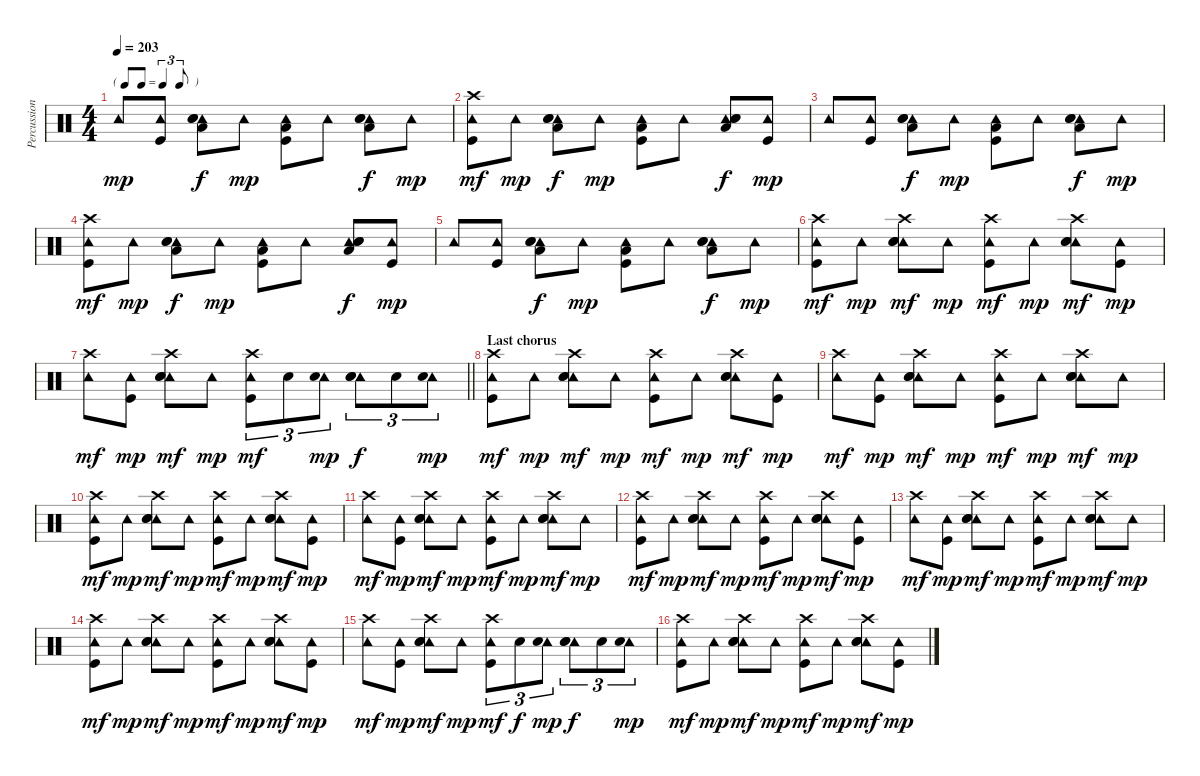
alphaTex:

\track ("Percussion" "Percussion") {instrument percussion}
\staff {score}
\articulation defaults
\ts (4 4)
\tf triplet8th
\tempo 203
\clef neutral
\ks c "Tambourine (hit)".8{dy mp}
("Tambourine (hit)" "Kick (hit)").8 ("Tambourine (hit)" "Hand Clap (hit)" "Snare (hit) 2" "Low Tom (hit)").8{dy f} "Tambourine (hit)".8{dy mp} ("Tambourine (hit)" "Low Tom (hit)" "Kick (hit)").8 "Tambourine (hit)".8 ("Tambourine (hit)" "Hand Clap (hit)" "Snare (hit) 2" "Low Tom (hit)").8{dy f} "Tambourine (hit)".8{dy mp} |
("Tambourine (hit)" "Crash high (hit)" "Kick (hit)").8{dy mf} "Tambourine (hit)".8{dy mp} ("Tambourine (hit)" "Hand Clap (hit)" "Snare (hit) 2" "Low Tom (hit)").8{dy f} "Tambourine (hit)".8{dy mp} ("Tambourine (hit)" "Low Tom (hit)" "Kick (hit)").8 "Tambourine (hit)".8 ("Tambourine (hit)" "Hand Clap (hit)" "Snare (hit) 2" "Low Tom (hit)").8{dy f} ("Tambourine (hit)" "Kick (hit)").8{dy mp} |
"Tambourine (hit)".8 ("Tambourine (hit)" "Kick (hit)").8 ("Tambourine (hit)" "Hand Clap (hit)" "Snare (hit) 2" "Low Tom (hit)").8{dy f} "Tambourine (hit)".8{dy mp} ("Tambourine (hit)" "Low Tom (hit)" "Kick (hit)").8 "Tambourine (hit)".8 ("Tambourine (hit)" "Hand Clap (hit)" "Snare (hit) 2" "Low Tom (hit)").8{dy f} "Tambourine (hit)".8{dy mp} |
("Tambourine (hit)" "Crash high (hit)" "Kick (hit)").8{dy mf} "Tambourine (hit)".8{dy mp} ("Tambourine (hit)" "Hand Clap (hit)" "Snare (hit) 2" "Low Tom (hit)").8{dy f} "Tambourine (hit)".8{dy mp} ("Tambourine (hit)" "Low Tom (hit)" "Kick (hit)").8 "Tambourine (hit)".8 ("Tambourine (hit)" "Hand Clap (hit)" "Snare (hit) 2" "Low Tom (hit)").8{dy f} ("Tambourine (hit)" "Kick (hit)").8{dy mp} |
"Tambourine (hit)".8 ("Tambourine (hit)" "Kick (hit)").8 ("Tambourine (hit)" "Hand Clap (hit)" "Snare (hit) 2" "Low Tom (hit)").8{dy f} "Tambourine (hit)".8{dy mp} ("Tambourine (hit)" "Low Tom (hit)" "Kick (hit)").8 "Tambourine (hit)".8 ("Tambourine (hit)" "Hand Clap (hit)" "Snare (hit) 2" "Low Tom (hit)").8{dy f} "Tambourine (hit)".8{dy mp} |
("Tambourine (hit)" "Crash high (hit)" "Kick (hit)").8{dy mf} "Tambourine (hit)".8{dy mp} ("Tambourine (hit)" "Crash high (hit)" "Hand Clap (hit)" "Snare (hit) 2").8{dy mf} "Tambourine (hit)".8{dy mp} ("Tambourine (hit)" "Crash high (hit)" "Kick (hit)").8{dy mf} "Tambourine (hit)".8{dy mp} ("Tambourine (hit)" "Crash high (hit)" "Hand Clap (hit)" "Snare (hit) 2").8{dy mf} ("Tambourine (hit)" "Kick (hit)").8{dy mp} |
\barLineRight lightlight
("Tambourine (hit)" "Crash high (hit)").8{dy mf} ("Tambourine (hit)" "Kick (hit)").8{dy mp} ("Tambourine (hit)" "Crash high (hit)" "Hand Clap (hit)" "Snare (hit) 2").8{dy mf} "Tambourine (hit)".8{dy mp} ("Tambourine (hit)" "Crash high (hit)" "Kick (hit)").8{tu (3 2) dy mf} "Snare (hit) 2".8{tu (3 2)} ("Tambourine (hit)" "Snare (hit) 2").8{tu (3 2) dy mp} ("Tambourine (hit)" "Hand Clap (hit)" "Snare (hit) 2").8{tu (3 2) dy f} "Snare (hit) 2".8{tu (3 2)} ("Tambourine (hit)" "Snare (hit) 2").8{tu (3 2) dy mp} |
\section ("" "Last chorus")
("Tambourine (hit)" "Crash high (hit)" "Kick (hit)").8{dy mf} "Tambourine (hit)".8{dy mp} ("Tambourine (hit)" "Crash high (hit)" "Hand Clap (hit)" "Snare (hit) 2").8{dy mf} "Tambourine (hit)".8{dy mp} ("Tambourine (hit)" "Crash high (hit)" "Kick (hit)").8{dy mf} "Tambourine (hit)".8{dy mp} ("Tambourine (hit)" "Crash high (hit)" "Hand Clap (hit)" "Snare (hit) 2").8{dy mf} ("Tambourine (hit)" "Kick (hit)").8{dy mp} |
("Tambourine (hit)" "Crash high (hit)").8{dy mf} ("Tambourine (hit)" "Kick (hit)").8{dy mp} ("Tambourine (hit)" "Crash high (hit)" "Hand Clap (hit)" "Snare (hit) 2").8{dy mf} "Tambourine (hit)".8{dy mp} ("Tambourine (hit)" "Crash high (hit)" "Kick (hit)").8{dy mf} "Tambourine (hit)".8{dy mp} ("Tambourine (hit)" "Crash high (hit)" "Hand Clap (hit)" "Snare (hit) 2").8{dy mf} "Tambourine (hit)".8{dy mp} |
("Tambourine (hit)" "Crash high (hit)" "Kick (hit)").8{dy mf} "Tambourine (hit)".8{dy mp} ("Tambourine (hit)" "Crash high (hit)" "Hand Clap (hit)" "Snare (hit) 2").8{dy mf} "Tambourine (hit)".8{dy mp} ("Tambourine (hit)" "Crash high (hit)" "Kick (hit)").8{dy mf} "Tambourine (hit)".8{dy mp} ("Tambourine (hit)" "Crash high (hit)" "Hand Clap (hit)" "Snare (hit) 2").8{dy mf} ("Tambourine (hit)" "Kick (hit)").8{dy mp} |
("Tambourine (hit)" "Crash high (hit)").8{dy mf} ("Tambourine (hit)" "Kick (hit)").8{dy mp} ("Tambourine (hit)" "Crash high (hit)" "Hand Clap (hit)" "Snare (hit) 2").8{dy mf} "Tambourine (hit)".8{dy mp} ("Tambourine (hit)" "Crash high (hit)" "Kick (hit)").8{dy mf} "Tambourine (hit)".8{dy mp} ("Tambourine (hit)" "Crash high (hit)" "Hand Clap (hit)" "Snare (hit) 2").8{dy mf} "Tambourine (hit)".8{dy mp} |
("Tambourine (hit)" "Crash high (hit)" "Kick (hit)").8{dy mf} "Tambourine (hit)".8{dy mp} ("Tambourine (hit)" "Crash high (hit)" "Hand Clap (hit)" "Snare (hit) 2").8{dy mf} "Tambourine (hit)".8{dy mp} ("Tambourine (hit)" "Crash high (hit)" "Kick (hit)").8{dy mf} "Tambourine (hit)".8{dy mp} ("Tambourine (hit)" "Crash high (hit)" "Hand Clap (hit)" "Snare (hit) 2").8{dy mf} ("Tambourine (hit)" "Kick (hit)").8{dy mp} |
("Tambourine (hit)" "Crash high (hit)").8{dy mf} ("Tambourine (hit)" "Kick (hit)").8{dy mp} ("Tambourine (hit)" "Crash high (hit)" "Hand Clap (hit)" "Snare (hit) 2").8{dy mf} "Tambourine (hit)".8{dy mp} ("Tambourine (hit)" "Crash high (hit)" "Kick (hit)").8{dy mf} "Tambourine (hit)".8{dy mp} ("Tambourine (hit)" "Crash high (hit)" "Hand Clap (hit)" "Snare (hit) 2").8{dy mf} "Tambourine (hit)".8{dy mp} |
("Tambourine (hit)" "Crash high (hit)" "Kick (hit)").8{dy mf} "Tambourine (hit)".8{dy mp} ("Tambourine (hit)" "Crash high (hit)" "Hand Clap (hit)" "Snare (hit) 2").8{dy mf} "Tambourine (hit)".8{dy mp} ("Tambourine (hit)" "Crash high (hit)" "Kick (hit)").8{dy mf} "Tambourine (hit)".8{dy mp} ("Tambourine (hit)" "Crash high (hit)" "Hand Clap (hit)" "Snare (hit) 2").8{dy mf} ("Tambourine (hit)" "Kick (hit)").8{dy mp} |
("Tambourine (hit)" "Crash high (hit)").8{dy mf} ("Tambourine (hit)" "Kick (hit)").8{dy mp} ("Tambourine (hit)" "Crash high (hit)" "Hand Clap (hit)" "Snare (hit) 2").8{dy mf} "Tambourine (hit)".8{dy mp} ("Tambourine (hit)" "Crash high (hit)" "Kick (hit)").8{tu (3 2) dy mf} "Snare (hit) 2".8{tu (3 2) dy f} ("Tambourine (hit)" "Snare (hit) 2").8{tu (3 2) dy mp} ("Tambourine (hit)" "Hand Clap (hit)" "Snare (hit) 2").8{tu (3 2) dy f} "Snare (hit) 2".8{tu (3 2)} ("Tambourine (hit)" "Snare (hit) 2").8{tu (3 2) dy mp} |
("Tambourine (hit)" "Crash high (hit)" "Kick (hit)").8{dy mf} "Tambourine (hit)".8{dy mp} ("Tambourine (hit)" "Crash high (hit)" "Hand Clap (hit)" "Snare (hit) 2").8{dy mf} "Tambourine (hit)".8{dy mp} ("Tambourine (hit)" "Crash high (hit)" "Kick (hit)").8{dy mf} "Tambourine (hit)".8{dy mp} ("Tambourine (hit)" "Crash high (hit)" "Hand Clap (hit)" "Snare (hit) 2").8{dy mf} ("Tambourine (hit)" "Kick (hit)").8{dy mp}
